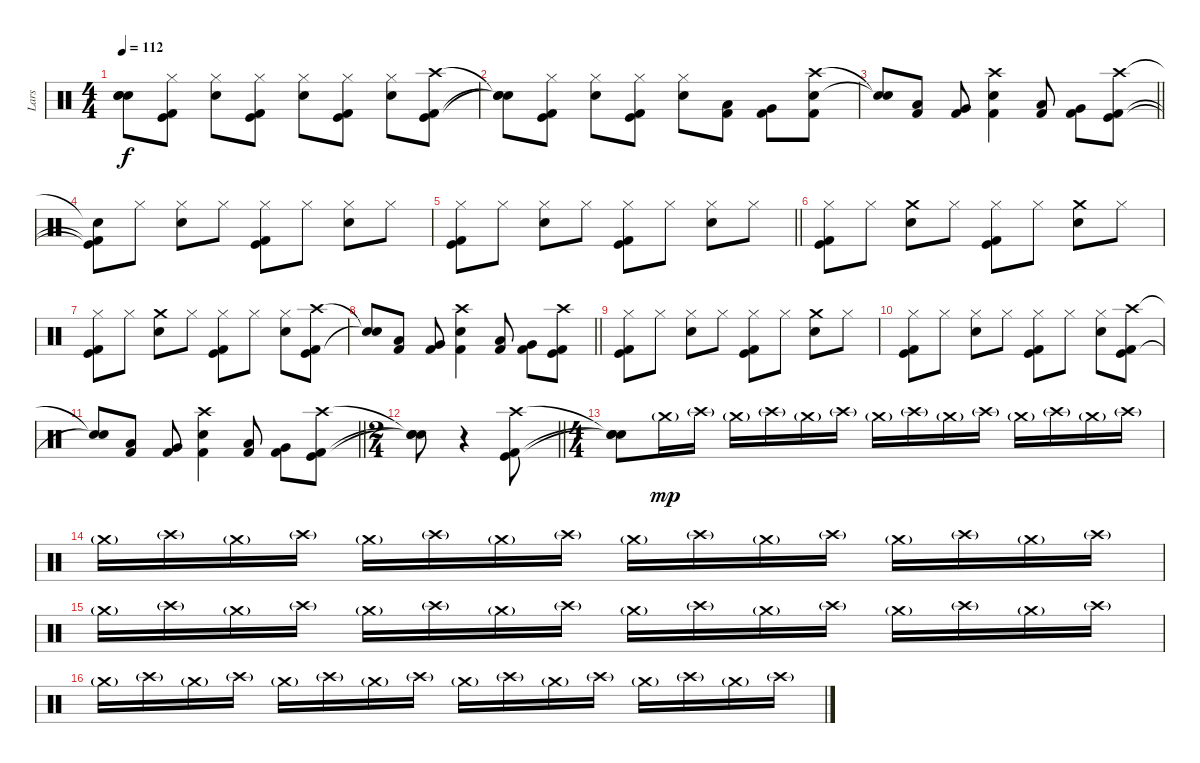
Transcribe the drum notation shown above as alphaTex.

\track ("Lars" "Lars") {instrument percussion}
\staff {score}
\articulation defaults
\ts (4 4)
\tempo 112
\clef neutral
\ks c
("Snare (hit)"{t} "Snare (hit)"{t} "Snare (hit)"{t}).8{dy f} ("Hi-Hat (closed)" "Kick (hit)" "Kick (hit) 2").8 ("Hi-Hat (closed)" "Electric Snare (hit)").8 ("Hi-Hat (closed)" "Kick (hit)" "Kick (hit) 2").8 ("Hi-Hat (closed)" "Electric Snare (hit)").8 ("Hi-Hat (closed)" "Kick (hit)" "Kick (hit) 2").8 ("Hi-Hat (closed)" "Electric Snare (hit)").8 ("Crash high (hit)" "Kick (hit)" "Kick (hit) 2").8 |
("Snare (hit)"{t} "Snare (hit)"{t} "Snare (hit)"{t}).8 ("Hi-Hat (closed)" "Kick (hit)" "Kick (hit) 2").8 ("Hi-Hat (closed)" "Electric Snare (hit)").8 ("Hi-Hat (closed)" "Kick (hit)" "Kick (hit) 2").8 ("Hi-Hat (closed)" "Electric Snare (hit)").8 ("Kick (hit) 2" "Low Tom (hit)").8 ("Kick (hit) 2" "Very Low Tom (hit)").8 ("Crash high (hit)" "Electric Snare (hit)" "Kick (hit) 2").8 |
\barLineRight lightlight
("Snare (hit)"{t} "Snare (hit)"{t}).8 ("Kick (hit) 2" "Low Tom (hit)").8 ("Kick (hit) 2" "Very Low Tom (hit)").8 ("Crash high (hit)" "Electric Snare (hit)" "Kick (hit) 2").4 ("Kick (hit) 2" "Low Tom (hit)").8 ("Kick (hit) 2" "Very Low Tom (hit)").8 ("Crash high (hit)" "Kick (hit)" "Kick (hit) 2").8 |
\section ("" "")
("Snare (hit)"{t} "Kick (hit)"{t} "Kick (hit) 2"{t}).8 "Hi-Hat (closed)".8 ("Hi-Hat (closed)" "Electric Snare (hit)").8 "Hi-Hat (closed)".8 ("Hi-Hat (closed)" "Kick (hit)" "Kick (hit) 2").8 "Hi-Hat (closed)".8 ("Hi-Hat (closed)" "Electric Snare (hit)").8 "Hi-Hat (closed)".8 |
\barLineRight lightlight
("Hi-Hat (closed)" "Kick (hit)" "Kick (hit) 2").8 "Hi-Hat (closed)".8 ("Hi-Hat (closed)" "Electric Snare (hit)").8 "Hi-Hat (closed)".8 ("Hi-Hat (closed)" "Kick (hit)" "Kick (hit) 2").8 "Hi-Hat (closed)".8 ("Hi-Hat (closed)" "Electric Snare (hit)").8 "Hi-Hat (closed)".8 |
\section ("" "")
("Hi-Hat (closed)" "Kick (hit)" "Kick (hit) 2").8 "Hi-Hat (closed)".8 ("Crash medium (hit)" "Electric Snare (hit)").8 "Hi-Hat (closed)".8 ("Hi-Hat (closed)" "Kick (hit)" "Kick (hit) 2").8 "Hi-Hat (closed)".8 ("Crash medium (hit)" "Electric Snare (hit)").8 "Hi-Hat (closed)".8 |
("Hi-Hat (closed)" "Kick (hit)" "Kick (hit) 2").8 "Hi-Hat (closed)".8 ("Crash medium (hit)" "Electric Snare (hit)").8 "Hi-Hat (closed)".8 ("Hi-Hat (closed)" "Kick (hit)" "Kick (hit) 2").8 "Hi-Hat (closed)".8 ("Hi-Hat (closed)" "Electric Snare (hit)").8 ("Crash high (hit)" "Kick (hit)" "Kick (hit) 2").8 |
\barLineRight lightlight
("Snare (hit)"{t} "Snare (hit)"{t}).8 ("Kick (hit) 2" "Low Tom (hit)").8 ("Kick (hit) 2" "Very Low Tom (hit)").8 ("Crash high (hit)" "Electric Snare (hit)" "Kick (hit) 2").4 ("Kick (hit) 2" "Low Tom (hit)").8 ("Kick (hit) 2" "Very Low Tom (hit)").8 ("Crash high (hit)" "Kick (hit)" "Kick (hit) 2").8 |
("Hi-Hat (closed)" "Kick (hit)" "Kick (hit) 2").8 "Hi-Hat (closed)".8 ("Hi-Hat (closed)" "Electric Snare (hit)").8 "Hi-Hat (closed)".8 ("Hi-Hat (closed)" "Kick (hit)" "Kick (hit) 2").8 "Hi-Hat (closed)".8 ("Crash medium (hit)" "Electric Snare (hit)").8 "Hi-Hat (closed)".8 |
("Hi-Hat (closed)" "Kick (hit)" "Kick (hit) 2").8 "Hi-Hat (closed)".8 ("Hi-Hat (closed)" "Electric Snare (hit)").8 "Hi-Hat (closed)".8 ("Hi-Hat (closed)" "Kick (hit)" "Kick (hit) 2").8 "Hi-Hat (closed)".8 ("Hi-Hat (closed)" "Electric Snare (hit)").8 ("Crash high (hit)" "Kick (hit)" "Kick (hit) 2").8 |
\barLineRight lightlight
("Snare (hit)"{t} "Snare (hit)"{t}).8 ("Kick (hit) 2" "Low Tom (hit)").8 ("Kick (hit) 2" "Very Low Tom (hit)").8 ("Crash high (hit)" "Electric Snare (hit)" "Kick (hit) 2").4 ("Kick (hit) 2" "Low Tom (hit)").8 ("Kick (hit) 2" "Very Low Tom (hit)").8 ("Crash high (hit)" "Kick (hit)" "Kick (hit) 2").8 |
\ts (2 4)
\section ("" "")
\barLineRight lightlight
("Snare (hit)"{t} "Snare (hit)"{t} "Snare (hit)"{t}).8 r.4 ("Crash high (hit)" "Kick (hit)" "Kick (hit) 2").8 |
\ts (4 4)
("Snare (hit)"{t} "Snare (hit)"{t} "Snare (hit)"{t}).8 "Crash medium (hit)"{g}.16{dy mp} "Crash high (hit)"{g}.16 "Crash medium (hit)"{g}.16 "Crash high (hit)"{g}.16 "Crash medium (hit)"{g}.16 "Crash high (hit)"{g}.16 "Crash medium (hit)"{g}.16 "Crash high (hit)"{g}.16 "Crash medium (hit)"{g}.16 "Crash high (hit)"{g}.16 "Crash medium (hit)"{g}.16 "Crash high (hit)"{g}.16 "Crash medium (hit)"{g}.16 "Crash high (hit)"{g}.16 |
"Crash medium (hit)"{g}.16 "Crash high (hit)"{g}.16 "Crash medium (hit)"{g}.16 "Crash high (hit)"{g}.16 "Crash medium (hit)"{g}.16 "Crash high (hit)"{g}.16 "Crash medium (hit)"{g}.16 "Crash high (hit)"{g}.16 "Crash medium (hit)"{g}.16 "Crash high (hit)"{g}.16 "Crash medium (hit)"{g}.16 "Crash high (hit)"{g}.16 "Crash medium (hit)"{g}.16 "Crash high (hit)"{g}.16 "Crash medium (hit)"{g}.16 "Crash high (hit)"{g}.16 |
"Crash medium (hit)"{g}.16{volume 0} "Crash high (hit)"{g}.16 "Crash medium (hit)"{g}.16 "Crash high (hit)"{g}.16 "Crash medium (hit)"{g}.16 "Crash high (hit)"{g}.16 "Crash medium (hit)"{g}.16 "Crash high (hit)"{g}.16 "Crash medium (hit)"{g}.16 "Crash high (hit)"{g}.16 "Crash medium (hit)"{g}.16 "Crash high (hit)"{g}.16 "Crash medium (hit)"{g}.16 "Crash high (hit)"{g}.16 "Crash medium (hit)"{g}.16 "Crash high (hit)"{g}.16 |
"Crash medium (hit)"{g}.16 "Crash high (hit)"{g}.16 "Crash medium (hit)"{g}.16 "Crash high (hit)"{g}.16 "Crash medium (hit)"{g}.16 "Crash high (hit)"{g}.16 "Crash medium (hit)"{g}.16 "Crash high (hit)"{g}.16 "Crash medium (hit)"{g}.16 "Crash high (hit)"{g}.16 "Crash medium (hit)"{g}.16 "Crash high (hit)"{g}.16 "Crash medium (hit)"{g}.16 "Crash high (hit)"{g}.16 "Crash medium (hit)"{g}.16 "Crash high (hit)"{g}.16
